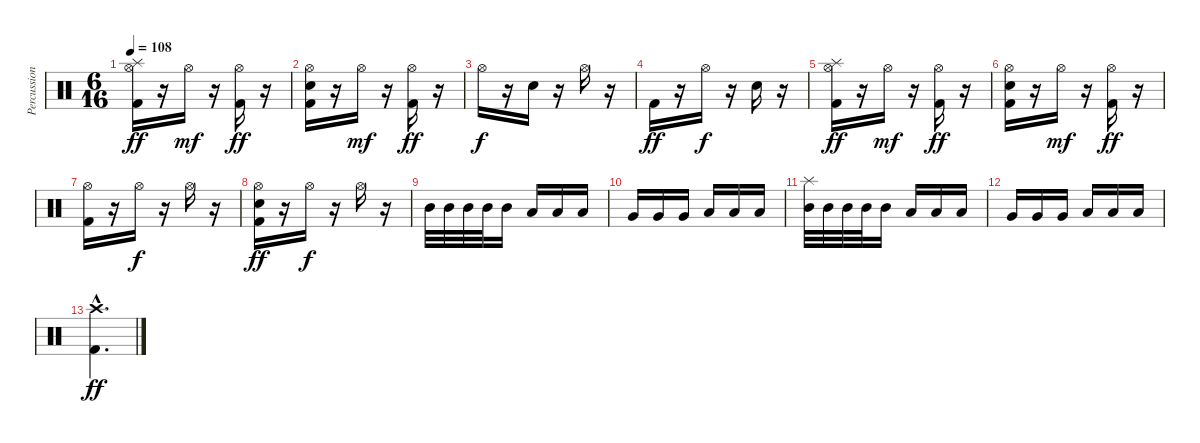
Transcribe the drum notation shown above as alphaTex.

\track ("Percussion" "Percussion") {instrument percussion}
\staff {score}
\articulation defaults
\ts (6 16)
\tempo 108
\clef neutral
\ks c
("Splash (hit)" "Hi-Hat (open)" "Kick (hit) 2").16{dy ff} r.16 "Hi-Hat (open)".16{dy mf} r.16 ("Hi-Hat (open)" "Kick (hit) 2").16{dy ff} r.16 |
("Hi-Hat (open)" "Electric Snare (hit)" "Kick (hit) 2").16 r.16 "Hi-Hat (open)".16{dy mf} r.16 ("Hi-Hat (open)" "Kick (hit) 2").16{dy ff} r.16 |
"Hi-Hat (open)".16{dy f} r.16 "Electric Snare (hit)".16 r.16 "Hi-Hat (open)".16 r.16 |
"Kick (hit) 2".16{dy ff} r.16 "Hi-Hat (open)".16{dy f} r.16 "Electric Snare (hit)".16 r.16 |
("Splash (hit)" "Hi-Hat (open)" "Kick (hit) 2").16{dy ff} r.16 "Hi-Hat (open)".16{dy mf} r.16 ("Hi-Hat (open)" "Kick (hit) 2").16{dy ff} r.16 |
("Hi-Hat (open)" "Electric Snare (hit)" "Kick (hit) 2").16 r.16 "Hi-Hat (open)".16{dy mf} r.16 ("Hi-Hat (open)" "Kick (hit) 2").16{dy ff} r.16 |
("Hi-Hat (open)" "Kick (hit) 2").16 r.16 "Hi-Hat (open)".16{dy f} r.16 "Hi-Hat (open)".16 r.16 |
("Hi-Hat (open)" "Electric Snare (hit)" "Kick (hit) 2").16{dy ff} r.16 "Hi-Hat (open)".16{dy f} r.16 "Hi-Hat (open)".16 r.16 |
"Mid Tom (hit)".32 "Mid Tom (hit)".32 "Mid Tom (hit)".32 "Mid Tom (hit)".32 "Mid Tom (hit)".16 "Low Tom (hit)".16 "Low Tom (hit)".16 "Low Tom (hit)".16 |
"Very Low Tom (hit)".16 "Very Low Tom (hit)".16 "Very Low Tom (hit)".16 "Low Floor Tom (hit)".16 "Low Floor Tom (hit)".16 "Low Floor Tom (hit)".16 |
("Splash (hit)" "Mid Tom (hit)").32 "Mid Tom (hit)".32 "Mid Tom (hit)".32 "Mid Tom (hit)".32 "Mid Tom (hit)".16 "Low Tom (hit)".16 "Low Tom (hit)".16 "Low Tom (hit)".16 |
"Very Low Tom (hit)".16 "Very Low Tom (hit)".16 "Very Low Tom (hit)".16 "Low Floor Tom (hit)".16 "Low Floor Tom (hit)".16 "Low Floor Tom (hit)".16 |
("Crash high (hit)"{hac} "Kick (hit) 2"{hac}).4{d dy ff}
